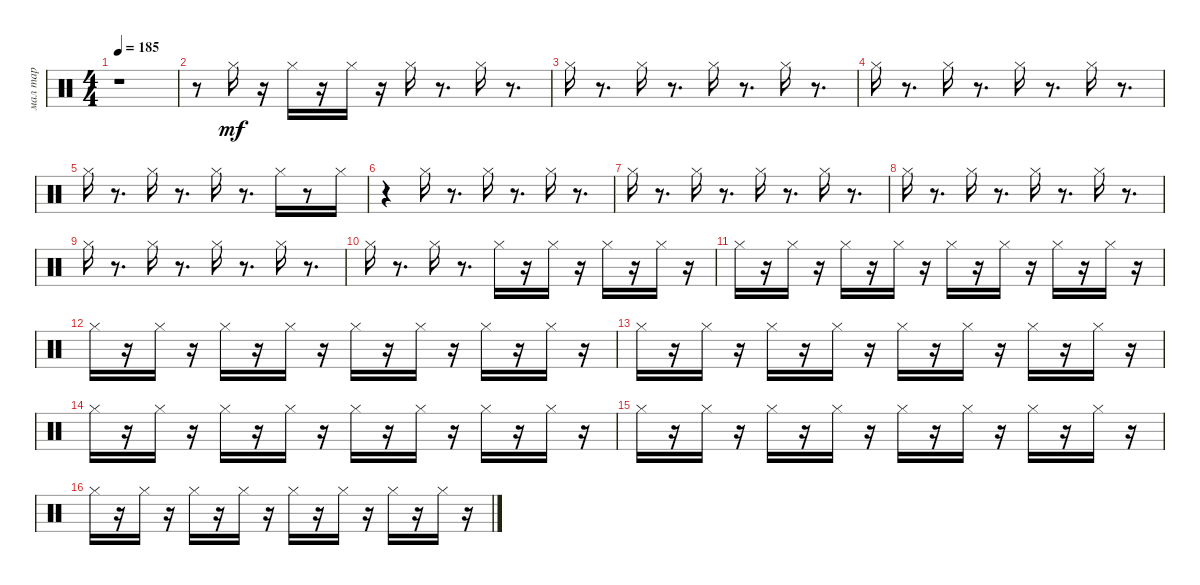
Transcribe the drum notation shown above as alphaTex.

\track ("мал тар" "мал тар") {instrument percussion}
\staff {score}
\articulation defaults
\ts (4 4)
\tempo 185
\clef neutral
\ks c
r.1{dy mf} |
r.8 "Hi-Hat (closed)".16 r.16 "Hi-Hat (closed)".16 r.16 "Hi-Hat (closed)".16 r.16 "Hi-Hat (closed)".16 r.8{d} "Hi-Hat (closed)".16 r.8{d} |
"Hi-Hat (closed)".16 r.8{d} "Hi-Hat (closed)".16 r.8{d} "Hi-Hat (closed)".16 r.8{d} "Hi-Hat (closed)".16 r.8{d} |
"Hi-Hat (closed)".16 r.8{d} "Hi-Hat (closed)".16 r.8{d} "Hi-Hat (closed)".16 r.8{d} "Hi-Hat (closed)".16 r.8{d} |
"Hi-Hat (closed)".16 r.8{d} "Hi-Hat (closed)".16 r.8{d} "Hi-Hat (closed)".16 r.8{d} "Hi-Hat (closed)".16 r.8 "Hi-Hat (closed)".16 |
r.4 "Hi-Hat (closed)".16 r.8{d} "Hi-Hat (closed)".16 r.8{d} "Hi-Hat (closed)".16 r.8{d} |
"Hi-Hat (closed)".16 r.8{d} "Hi-Hat (closed)".16 r.8{d} "Hi-Hat (closed)".16 r.8{d} "Hi-Hat (closed)".16 r.8{d} |
"Hi-Hat (closed)".16 r.8{d} "Hi-Hat (closed)".16 r.8{d} "Hi-Hat (closed)".16 r.8{d} "Hi-Hat (closed)".16 r.8{d} |
"Hi-Hat (closed)".16 r.8{d} "Hi-Hat (closed)".16 r.8{d} "Hi-Hat (closed)".16 r.8{d} "Hi-Hat (closed)".16 r.8{d} |
"Hi-Hat (closed)".16 r.8{d} "Hi-Hat (closed)".16 r.8{d} "Hi-Hat (closed)".16 r.16 "Hi-Hat (closed)".16 r.16 "Hi-Hat (closed)".16 r.16 "Hi-Hat (closed)".16 r.16 |
"Hi-Hat (closed)".16 r.16 "Hi-Hat (closed)".16 r.16 "Hi-Hat (closed)".16 r.16 "Hi-Hat (closed)".16 r.16 "Hi-Hat (closed)".16 r.16 "Hi-Hat (closed)".16 r.16 "Hi-Hat (closed)".16 r.16 "Hi-Hat (closed)".16 r.16 |
"Hi-Hat (closed)".16 r.16 "Hi-Hat (closed)".16 r.16 "Hi-Hat (closed)".16 r.16 "Hi-Hat (closed)".16 r.16 "Hi-Hat (closed)".16 r.16 "Hi-Hat (closed)".16 r.16 "Hi-Hat (closed)".16 r.16 "Hi-Hat (closed)".16 r.16 |
"Hi-Hat (closed)".16 r.16 "Hi-Hat (closed)".16 r.16 "Hi-Hat (closed)".16 r.16 "Hi-Hat (closed)".16 r.16 "Hi-Hat (closed)".16 r.16 "Hi-Hat (closed)".16 r.16 "Hi-Hat (closed)".16 r.16 "Hi-Hat (closed)".16 r.16 |
"Hi-Hat (closed)".16 r.16 "Hi-Hat (closed)".16 r.16 "Hi-Hat (closed)".16 r.16 "Hi-Hat (closed)".16 r.16 "Hi-Hat (closed)".16 r.16 "Hi-Hat (closed)".16 r.16 "Hi-Hat (closed)".16 r.16 "Hi-Hat (closed)".16 r.16 |
"Hi-Hat (closed)".16 r.16 "Hi-Hat (closed)".16 r.16 "Hi-Hat (closed)".16 r.16 "Hi-Hat (closed)".16 r.16 "Hi-Hat (closed)".16 r.16 "Hi-Hat (closed)".16 r.16 "Hi-Hat (closed)".16 r.16 "Hi-Hat (closed)".16 r.16 |
"Hi-Hat (closed)".16 r.16 "Hi-Hat (closed)".16 r.16 "Hi-Hat (closed)".16 r.16 "Hi-Hat (closed)".16 r.16 "Hi-Hat (closed)".16 r.16 "Hi-Hat (closed)".16 r.16 "Hi-Hat (closed)".16 r.16 "Hi-Hat (closed)".16 r.16
